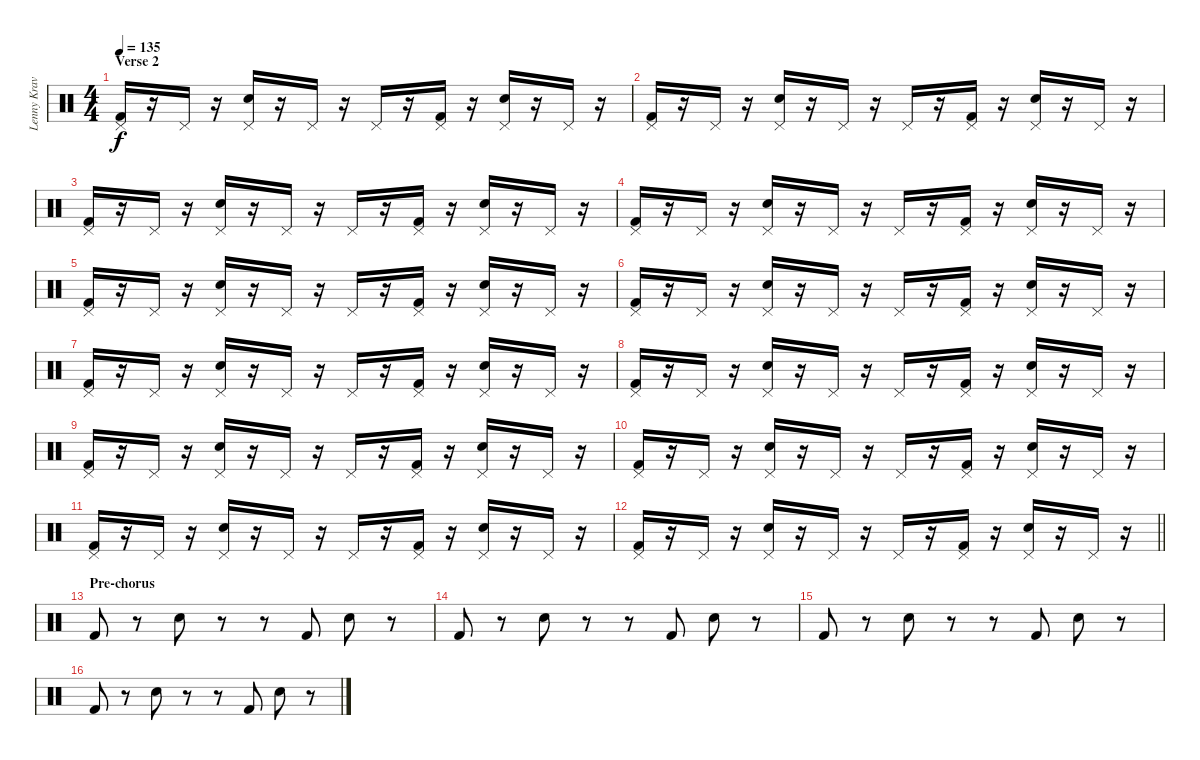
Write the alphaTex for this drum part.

\track ("Lenny Kravitz (drums)" "Lenny Krav") {instrument percussion}
\staff {score}
\articulation defaults
\ts (4 4)
\section ("" "Verse 2")
\tempo 135
\clef neutral
\ks c
("Pedal Hi-Hat (hit)" "Kick (hit) 2").16{dy f} r.16 "Pedal Hi-Hat (hit)".16 r.16 ("Pedal Hi-Hat (hit)" "Electric Snare (hit)").16 r.16 "Pedal Hi-Hat (hit)".16 r.16 "Pedal Hi-Hat (hit)".16 r.16 ("Pedal Hi-Hat (hit)" "Kick (hit) 2").16 r.16 ("Pedal Hi-Hat (hit)" "Electric Snare (hit)").16 r.16 "Pedal Hi-Hat (hit)".16 r.16 |
("Pedal Hi-Hat (hit)" "Kick (hit) 2").16 r.16 "Pedal Hi-Hat (hit)".16 r.16 ("Pedal Hi-Hat (hit)" "Electric Snare (hit)").16 r.16 "Pedal Hi-Hat (hit)".16 r.16 "Pedal Hi-Hat (hit)".16 r.16 ("Pedal Hi-Hat (hit)" "Kick (hit) 2").16 r.16 ("Pedal Hi-Hat (hit)" "Electric Snare (hit)").16 r.16 "Pedal Hi-Hat (hit)".16 r.16 |
("Pedal Hi-Hat (hit)" "Kick (hit) 2").16 r.16 "Pedal Hi-Hat (hit)".16 r.16 ("Pedal Hi-Hat (hit)" "Electric Snare (hit)").16 r.16 "Pedal Hi-Hat (hit)".16 r.16 "Pedal Hi-Hat (hit)".16 r.16 ("Pedal Hi-Hat (hit)" "Kick (hit) 2").16 r.16 ("Pedal Hi-Hat (hit)" "Electric Snare (hit)").16 r.16 "Pedal Hi-Hat (hit)".16 r.16 |
("Pedal Hi-Hat (hit)" "Kick (hit) 2").16 r.16 "Pedal Hi-Hat (hit)".16 r.16 ("Pedal Hi-Hat (hit)" "Electric Snare (hit)").16 r.16 "Pedal Hi-Hat (hit)".16 r.16 "Pedal Hi-Hat (hit)".16 r.16 ("Pedal Hi-Hat (hit)" "Kick (hit) 2").16 r.16 ("Pedal Hi-Hat (hit)" "Electric Snare (hit)").16 r.16 "Pedal Hi-Hat (hit)".16 r.16 |
("Pedal Hi-Hat (hit)" "Kick (hit) 2").16 r.16 "Pedal Hi-Hat (hit)".16 r.16 ("Pedal Hi-Hat (hit)" "Electric Snare (hit)").16 r.16 "Pedal Hi-Hat (hit)".16 r.16 "Pedal Hi-Hat (hit)".16 r.16 ("Pedal Hi-Hat (hit)" "Kick (hit) 2").16 r.16 ("Pedal Hi-Hat (hit)" "Electric Snare (hit)").16 r.16 "Pedal Hi-Hat (hit)".16 r.16 |
("Pedal Hi-Hat (hit)" "Kick (hit) 2").16 r.16 "Pedal Hi-Hat (hit)".16 r.16 ("Pedal Hi-Hat (hit)" "Electric Snare (hit)").16 r.16 "Pedal Hi-Hat (hit)".16 r.16 "Pedal Hi-Hat (hit)".16 r.16 ("Pedal Hi-Hat (hit)" "Kick (hit) 2").16 r.16 ("Pedal Hi-Hat (hit)" "Electric Snare (hit)").16 r.16 "Pedal Hi-Hat (hit)".16 r.16 |
("Pedal Hi-Hat (hit)" "Kick (hit) 2").16 r.16 "Pedal Hi-Hat (hit)".16 r.16 ("Pedal Hi-Hat (hit)" "Electric Snare (hit)").16 r.16 "Pedal Hi-Hat (hit)".16 r.16 "Pedal Hi-Hat (hit)".16 r.16 ("Pedal Hi-Hat (hit)" "Kick (hit) 2").16 r.16 ("Pedal Hi-Hat (hit)" "Electric Snare (hit)").16 r.16 "Pedal Hi-Hat (hit)".16 r.16 |
("Pedal Hi-Hat (hit)" "Kick (hit) 2").16 r.16 "Pedal Hi-Hat (hit)".16 r.16 ("Pedal Hi-Hat (hit)" "Electric Snare (hit)").16 r.16 "Pedal Hi-Hat (hit)".16 r.16 "Pedal Hi-Hat (hit)".16 r.16 ("Pedal Hi-Hat (hit)" "Kick (hit) 2").16 r.16 ("Pedal Hi-Hat (hit)" "Electric Snare (hit)").16 r.16 "Pedal Hi-Hat (hit)".16 r.16 |
("Pedal Hi-Hat (hit)" "Kick (hit) 2").16 r.16 "Pedal Hi-Hat (hit)".16 r.16 ("Pedal Hi-Hat (hit)" "Electric Snare (hit)").16 r.16 "Pedal Hi-Hat (hit)".16 r.16 "Pedal Hi-Hat (hit)".16 r.16 ("Pedal Hi-Hat (hit)" "Kick (hit) 2").16 r.16 ("Pedal Hi-Hat (hit)" "Electric Snare (hit)").16 r.16 "Pedal Hi-Hat (hit)".16 r.16 |
("Pedal Hi-Hat (hit)" "Kick (hit) 2").16 r.16 "Pedal Hi-Hat (hit)".16 r.16 ("Pedal Hi-Hat (hit)" "Electric Snare (hit)").16 r.16 "Pedal Hi-Hat (hit)".16 r.16 "Pedal Hi-Hat (hit)".16 r.16 ("Pedal Hi-Hat (hit)" "Kick (hit) 2").16 r.16 ("Pedal Hi-Hat (hit)" "Electric Snare (hit)").16 r.16 "Pedal Hi-Hat (hit)".16 r.16 |
("Pedal Hi-Hat (hit)" "Kick (hit) 2").16 r.16 "Pedal Hi-Hat (hit)".16 r.16 ("Pedal Hi-Hat (hit)" "Electric Snare (hit)").16 r.16 "Pedal Hi-Hat (hit)".16 r.16 "Pedal Hi-Hat (hit)".16 r.16 ("Pedal Hi-Hat (hit)" "Kick (hit) 2").16 r.16 ("Pedal Hi-Hat (hit)" "Electric Snare (hit)").16 r.16 "Pedal Hi-Hat (hit)".16 r.16 |
\barLineRight lightlight
("Pedal Hi-Hat (hit)" "Kick (hit) 2").16 r.16 "Pedal Hi-Hat (hit)".16 r.16 ("Pedal Hi-Hat (hit)" "Electric Snare (hit)").16 r.16 "Pedal Hi-Hat (hit)".16 r.16 "Pedal Hi-Hat (hit)".16 r.16 ("Pedal Hi-Hat (hit)" "Kick (hit) 2").16 r.16 ("Pedal Hi-Hat (hit)" "Electric Snare (hit)").16 r.16 "Pedal Hi-Hat (hit)".16 r.16 |
\section ("" "Pre-chorus")
"Kick (hit) 2".8 r.8 "Electric Snare (hit)".8 r.8 r.8 "Kick (hit) 2".8 "Electric Snare (hit)".8 r.8 |
"Kick (hit) 2".8 r.8 "Electric Snare (hit)".8 r.8 r.8 "Kick (hit) 2".8 "Electric Snare (hit)".8 r.8 |
"Kick (hit) 2".8 r.8 "Electric Snare (hit)".8 r.8 r.8 "Kick (hit) 2".8 "Electric Snare (hit)".8 r.8 |
"Kick (hit) 2".8 r.8 "Electric Snare (hit)".8 r.8 r.8 "Kick (hit) 2".8 "Electric Snare (hit)".8 r.8
